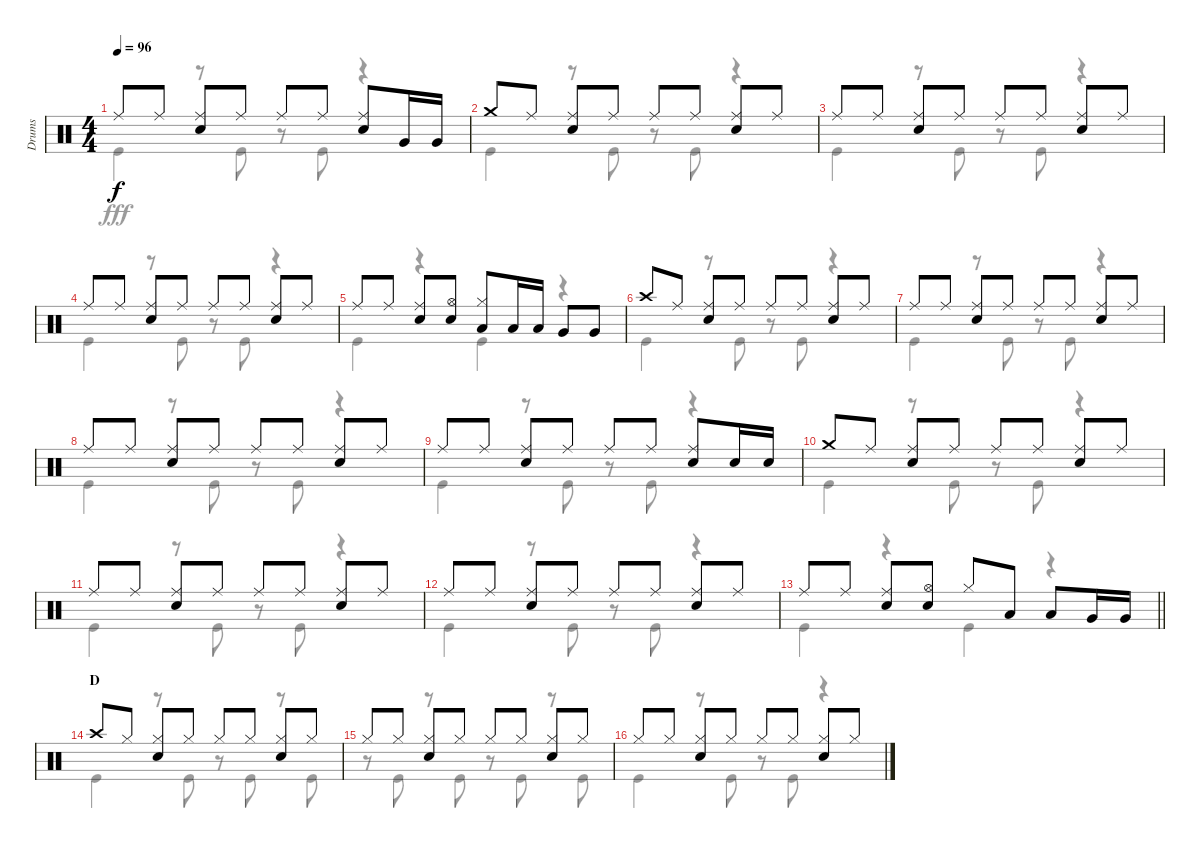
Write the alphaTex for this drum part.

\track ("Drums" "Drums") {instrument percussion}
\staff {score}
\articulation defaults
\voice
\ts (4 4)
\tempo 96
\clef neutral
\ks c "Ride (middle)".8{dy f} "Ride (middle)".8
("Ride (middle)" "Snare (hit) 2").8 "Ride (middle)".8 "Ride (middle)".8 "Ride (middle)".8 ("Ride (middle)" "Snare (hit) 2").8 "Very Low Tom (hit)".16 "Very Low Tom (hit)".16 |
"Crash medium (hit)".8 "Ride (middle)".8 ("Ride (middle)" "Snare (hit) 2").8 "Ride (middle)".8 "Ride (middle)".8 "Ride (middle)".8 ("Ride (middle)" "Snare (hit) 2").8 "Ride (middle)".8 |
"Ride (middle)".8 "Ride (middle)".8 ("Ride (middle)" "Snare (hit) 2").8 "Ride (middle)".8 "Ride (middle)".8 "Ride (middle)".8 ("Ride (middle)" "Snare (hit) 2").8 "Ride (middle)".8 |
"Ride (middle)".8 "Ride (middle)".8 ("Ride (middle)" "Snare (hit) 2").8 "Ride (middle)".8 "Ride (middle)".8 "Ride (middle)".8 ("Ride (middle)" "Snare (hit) 2").8 "Ride (middle)".8 |
"Ride (middle)".8 "Ride (middle)".8 ("Ride (middle)" "Snare (hit) 2").8 ("Hi-Hat (open)" "Snare (hit) 2").8 ("Hi-Hat (closed)" "Low Tom (hit)").8 "Low Tom (hit)".16 "Low Tom (hit)".16 "Very Low Tom (hit)".8 "Very Low Tom (hit)".8 |
"Crash high (hit)".8 "Ride (middle)".8 ("Ride (middle)" "Snare (hit) 2").8 "Ride (middle)".8 "Ride (middle)".8 "Ride (middle)".8 ("Ride (middle)" "Snare (hit) 2").8 "Ride (middle)".8 |
"Ride (middle)".8 "Ride (middle)".8 ("Ride (middle)" "Snare (hit) 2").8 "Ride (middle)".8 "Ride (middle)".8 "Ride (middle)".8 ("Ride (middle)" "Snare (hit) 2").8 "Ride (middle)".8 |
"Ride (middle)".8 "Ride (middle)".8 ("Ride (middle)" "Snare (hit) 2").8 "Ride (middle)".8 "Ride (middle)".8 "Ride (middle)".8 ("Ride (middle)" "Snare (hit) 2").8 "Ride (middle)".8 |
"Ride (middle)".8 "Ride (middle)".8 ("Ride (middle)" "Snare (hit) 2").8 "Ride (middle)".8 "Ride (middle)".8 "Ride (middle)".8 ("Ride (middle)" "Snare (hit) 2").8 "Snare (hit) 2".16 "Snare (hit) 2".16 |
"Crash medium (hit)".8 "Ride (middle)".8 ("Ride (middle)" "Snare (hit) 2").8 "Ride (middle)".8 "Ride (middle)".8 "Ride (middle)".8 ("Ride (middle)" "Snare (hit) 2").8 "Ride (middle)".8 |
"Ride (middle)".8 "Ride (middle)".8 ("Ride (middle)" "Snare (hit) 2").8 "Ride (middle)".8 "Ride (middle)".8 "Ride (middle)".8 ("Ride (middle)" "Snare (hit) 2").8 "Ride (middle)".8 |
"Ride (middle)".8 "Ride (middle)".8 ("Ride (middle)" "Snare (hit) 2").8 "Ride (middle)".8 "Ride (middle)".8 "Ride (middle)".8 ("Ride (middle)" "Snare (hit) 2").8 "Ride (middle)".8 |
\barLineRight lightlight "Ride (middle)".8 "Ride (middle)".8
("Ride (middle)" "Snare (hit) 2").8 ("Hi-Hat (open)" "Snare (hit) 2").8 "Hi-Hat (closed)".8 "Low Tom (hit)".8 "Low Tom (hit)".8 "Very Low Tom (hit)".16 "Very Low Tom (hit)".16 |
\section ("" "D")
"Crash high (hit)".8 "Hi-Hat (closed)".8 ("Hi-Hat (closed)" "Snare (hit) 2").8 "Hi-Hat (closed)".8 "Hi-Hat (closed)".8 "Hi-Hat (closed)".8 ("Hi-Hat (closed)" "Snare (hit) 2").8 "Hi-Hat (closed)".8 |
"Hi-Hat (closed)".8 "Hi-Hat (closed)".8 ("Hi-Hat (closed)" "Snare (hit) 2").8 "Hi-Hat (closed)".8 "Hi-Hat (closed)".8 "Hi-Hat (closed)".8 ("Hi-Hat (closed)" "Snare (hit) 2").8 "Hi-Hat (closed)".8 |
"Hi-Hat (closed)".8 "Hi-Hat (closed)".8 ("Hi-Hat (closed)" "Snare (hit) 2").8 "Hi-Hat (closed)".8 "Hi-Hat (closed)".8 "Hi-Hat (closed)".8 ("Hi-Hat (closed)" "Snare (hit) 2").8 "Hi-Hat (closed)".8
\voice
\clef neutral
\ottava regular
\simile none
\ks c "Kick (hit)".4{dy fff}
r.8 "Kick (hit)".8 r.8 "Kick (hit)".8 r.4 |
"Kick (hit)".4 r.8 "Kick (hit)".8 r.8 "Kick (hit)".8 r.4 |
"Kick (hit)".4 r.8 "Kick (hit)".8 r.8 "Kick (hit)".8 r.4 |
"Kick (hit)".4 r.8 "Kick (hit)".8 r.8 "Kick (hit)".8 r.4 |
"Kick (hit)".4 r.4 "Kick (hit)".4 r.4 |
"Kick (hit)".4 r.8 "Kick (hit)".8 r.8 "Kick (hit)".8 r.4 |
"Kick (hit)".4 r.8 "Kick (hit)".8 r.8 "Kick (hit)".8 r.4 |
"Kick (hit)".4 r.8 "Kick (hit)".8 r.8 "Kick (hit)".8 r.4 |
"Kick (hit)".4 r.8 "Kick (hit)".8 r.8 "Kick (hit)".8 r.4 |
"Kick (hit)".4 r.8 "Kick (hit)".8 r.8 "Kick (hit)".8 r.4 |
"Kick (hit)".4 r.8 "Kick (hit)".8 r.8 "Kick (hit)".8 r.4 |
"Kick (hit)".4 r.8 "Kick (hit)".8 r.8 "Kick (hit)".8 r.4 |
\barLineRight lightlight "Kick (hit)".4
r.4 "Kick (hit)".4 r.4 |
"Kick (hit)".4 r.8 "Kick (hit)".8 r.8 "Kick (hit)".8 r.8 "Kick (hit)".8 |
r.8 "Kick (hit)".8 r.8 "Kick (hit)".8 r.8 "Kick (hit)".8 r.8 "Kick (hit)".8 |
"Kick (hit)".4 r.8 "Kick (hit)".8 r.8 "Kick (hit)".8 r.4
